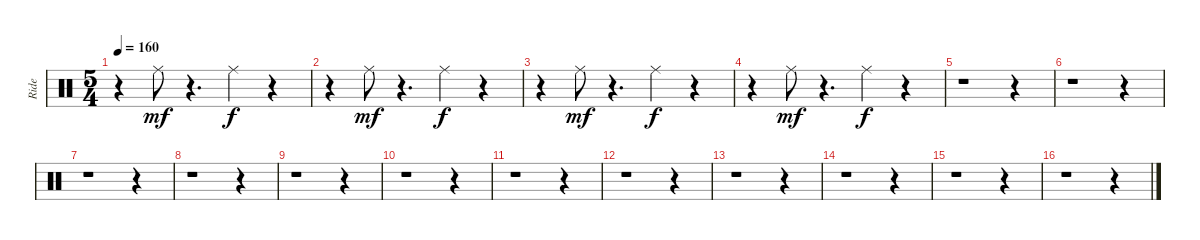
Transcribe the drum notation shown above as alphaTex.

\track ("Ride" "Ride") {instrument percussion}
\staff {score}
\articulation defaults
\ts (5 4)
\tempo 160
\clef neutral
\ks c
r.4{dy f} "Ride (middle)".8{dy mf} r.4{d} "Ride (middle)".4{dy f} r.4 |
r.4 "Ride (middle)".8{dy mf} r.4{d} "Ride (middle)".4{dy f} r.4 |
r.4 "Ride (middle)".8{dy mf} r.4{d} "Ride (middle)".4{dy f} r.4 |
r.4 "Ride (middle)".8{dy mf} r.4{d} "Ride (middle)".4{dy f} r.4 |
r.1 r.4 |
r.1 r.4 |
r.1 r.4 |
r.1 r.4 |
r.1 r.4 |
r.1 r.4 |
r.1 r.4 |
r.1 r.4 |
r.1 r.4 |
r.1 r.4 |
r.1 r.4 |
r.1 r.4
